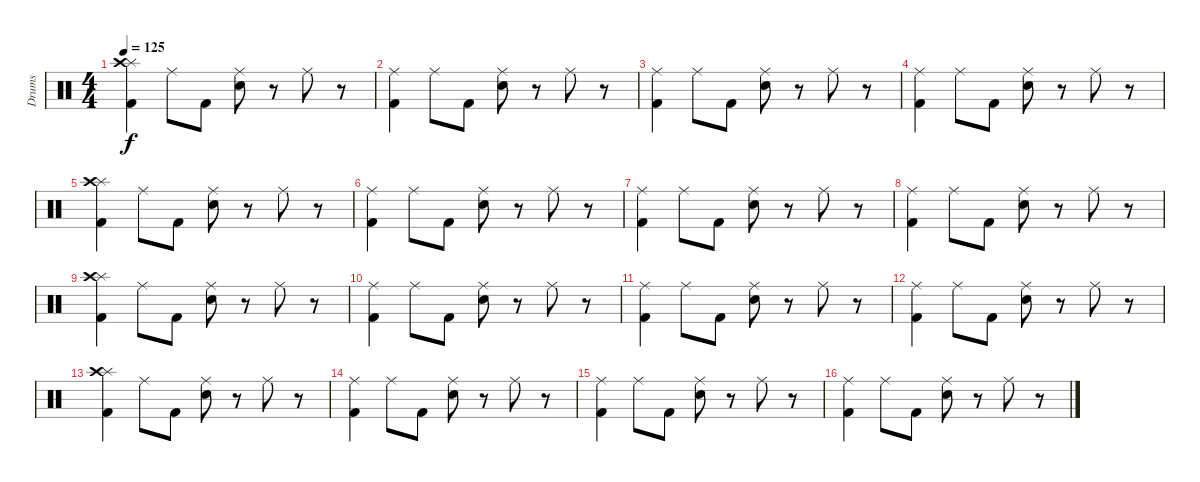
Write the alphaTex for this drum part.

\track ("Drums" "Drums") {instrument percussion}
\staff {score}
\articulation defaults
\ts (4 4)
\tempo 125
\clef neutral
\ks c
("Splash (hit)" "Crash high (hit)" "Kick (hit) 2").4{dy f} "Ride (middle)".8 "Kick (hit) 2".8 ("Ride (middle)" "Snare (hit) 2").8 r.8 "Ride (middle)".8 r.8 |
("Ride (middle)" "Kick (hit) 2").4 "Ride (middle)".8 "Kick (hit) 2".8 ("Ride (middle)" "Snare (hit) 2").8 r.8 "Ride (middle)".8 r.8 |
("Ride (middle)" "Kick (hit) 2").4 "Ride (middle)".8 "Kick (hit) 2".8 ("Ride (middle)" "Snare (hit) 2").8 r.8 "Ride (middle)".8 r.8 |
("Ride (middle)" "Kick (hit) 2").4 "Ride (middle)".8 "Kick (hit) 2".8 ("Ride (middle)" "Snare (hit) 2").8 r.8 "Ride (middle)".8 r.8 |
("Splash (hit)" "Crash high (hit)" "Kick (hit) 2").4 "Ride (middle)".8 "Kick (hit) 2".8 ("Ride (middle)" "Snare (hit) 2").8 r.8 "Ride (middle)".8 r.8 |
("Ride (middle)" "Kick (hit) 2").4 "Ride (middle)".8 "Kick (hit) 2".8 ("Ride (middle)" "Snare (hit) 2").8 r.8 "Ride (middle)".8 r.8 |
("Ride (middle)" "Kick (hit) 2").4 "Ride (middle)".8 "Kick (hit) 2".8 ("Ride (middle)" "Snare (hit) 2").8 r.8 "Ride (middle)".8 r.8 |
("Ride (middle)" "Kick (hit) 2").4 "Ride (middle)".8 "Kick (hit) 2".8 ("Ride (middle)" "Snare (hit) 2").8 r.8 "Ride (middle)".8 r.8 |
("Splash (hit)" "Crash high (hit)" "Kick (hit) 2").4 "Ride (middle)".8 "Kick (hit) 2".8 ("Ride (middle)" "Snare (hit) 2").8 r.8 "Ride (middle)".8 r.8 |
("Ride (middle)" "Kick (hit) 2").4 "Ride (middle)".8 "Kick (hit) 2".8 ("Ride (middle)" "Snare (hit) 2").8 r.8 "Ride (middle)".8 r.8 |
("Ride (middle)" "Kick (hit) 2").4 "Ride (middle)".8 "Kick (hit) 2".8 ("Ride (middle)" "Snare (hit) 2").8 r.8 "Ride (middle)".8 r.8 |
("Ride (middle)" "Kick (hit) 2").4 "Ride (middle)".8 "Kick (hit) 2".8 ("Ride (middle)" "Snare (hit) 2").8 r.8 "Ride (middle)".8 r.8 |
("Splash (hit)" "Crash high (hit)" "Kick (hit) 2").4 "Ride (middle)".8 "Kick (hit) 2".8 ("Ride (middle)" "Snare (hit) 2").8 r.8 "Ride (middle)".8 r.8 |
("Ride (middle)" "Kick (hit) 2").4 "Ride (middle)".8 "Kick (hit) 2".8 ("Ride (middle)" "Snare (hit) 2").8 r.8 "Ride (middle)".8 r.8 |
("Ride (middle)" "Kick (hit) 2").4 "Ride (middle)".8 "Kick (hit) 2".8 ("Ride (middle)" "Snare (hit) 2").8 r.8 "Ride (middle)".8 r.8 |
("Ride (middle)" "Kick (hit) 2").4 "Ride (middle)".8 "Kick (hit) 2".8 ("Ride (middle)" "Snare (hit) 2").8 r.8 "Ride (middle)".8 r.8
